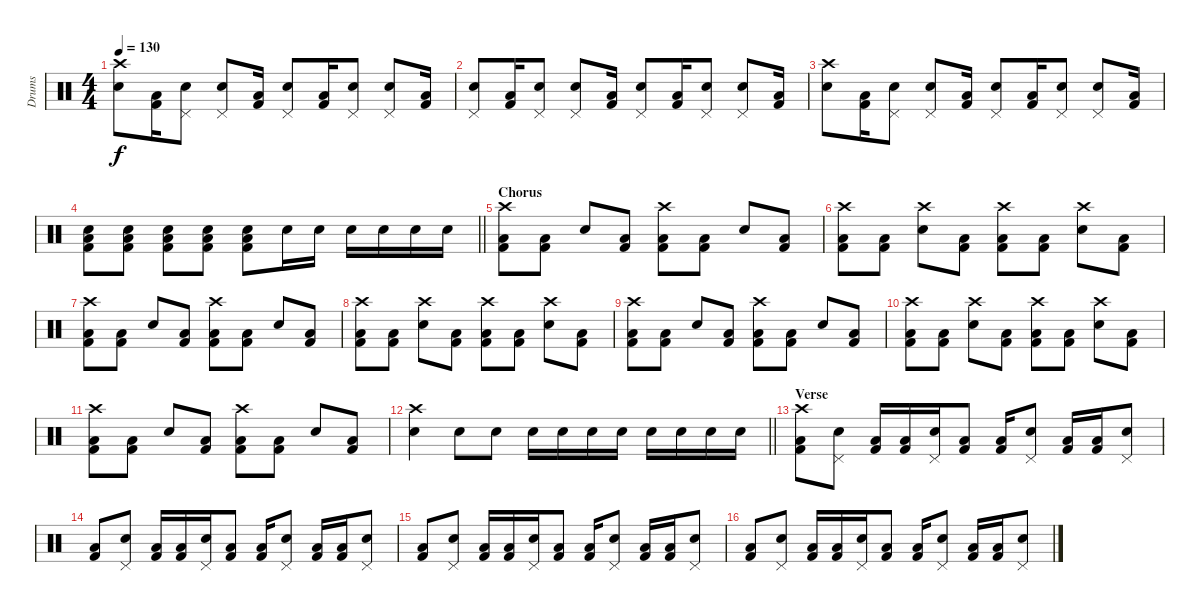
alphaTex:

\track ("Drums" "Drums") {instrument percussion}
\staff {score}
\articulation defaults
\ts (4 4)
\tempo 130
\clef neutral
\ks c
("Electric Snare (hit)" "Crash high (hit)").8{dy f} ("Kick (hit) 2" "Low Floor Tom (hit)").16 ("Electric Snare (hit)" "Pedal Hi-Hat (hit)").8 ("Electric Snare (hit)" "Pedal Hi-Hat (hit)").8 ("Kick (hit) 2" "Low Floor Tom (hit)").16 ("Electric Snare (hit)" "Pedal Hi-Hat (hit)").8 ("Kick (hit) 2" "Low Floor Tom (hit)").16 ("Electric Snare (hit)" "Pedal Hi-Hat (hit)").8 ("Electric Snare (hit)" "Pedal Hi-Hat (hit)").8 ("Kick (hit) 2" "Low Floor Tom (hit)").16 |
("Electric Snare (hit)" "Pedal Hi-Hat (hit)").8 ("Kick (hit) 2" "Low Floor Tom (hit)").16 ("Electric Snare (hit)" "Pedal Hi-Hat (hit)").8 ("Electric Snare (hit)" "Pedal Hi-Hat (hit)").8 ("Kick (hit) 2" "Low Floor Tom (hit)").16 ("Electric Snare (hit)" "Pedal Hi-Hat (hit)").8 ("Kick (hit) 2" "Low Floor Tom (hit)").16 ("Electric Snare (hit)" "Pedal Hi-Hat (hit)").8 ("Electric Snare (hit)" "Pedal Hi-Hat (hit)").8 ("Kick (hit) 2" "Low Floor Tom (hit)").16 |
("Electric Snare (hit)" "Crash high (hit)").8 ("Kick (hit) 2" "Low Floor Tom (hit)").16 ("Electric Snare (hit)" "Pedal Hi-Hat (hit)").8 ("Electric Snare (hit)" "Pedal Hi-Hat (hit)").8 ("Kick (hit) 2" "Low Floor Tom (hit)").16 ("Electric Snare (hit)" "Pedal Hi-Hat (hit)").8 ("Kick (hit) 2" "Low Floor Tom (hit)").16 ("Electric Snare (hit)" "Pedal Hi-Hat (hit)").8 ("Electric Snare (hit)" "Pedal Hi-Hat (hit)").8 ("Kick (hit) 2" "Low Floor Tom (hit)").16 |
\barLineRight lightlight
("Kick (hit) 2" "Low Floor Tom (hit)" "Electric Snare (hit)").8 ("Kick (hit) 2" "Low Floor Tom (hit)" "Electric Snare (hit)").8 ("Kick (hit) 2" "Low Floor Tom (hit)" "Electric Snare (hit)").8 ("Kick (hit) 2" "Low Floor Tom (hit)" "Electric Snare (hit)").8 ("Kick (hit) 2" "Low Floor Tom (hit)" "Electric Snare (hit)").8 "Electric Snare (hit)".16 "Electric Snare (hit)".16 "Electric Snare (hit)".16 "Electric Snare (hit)".16 "Electric Snare (hit)".16 "Electric Snare (hit)".16 |
\section ("" "Chorus")
("Kick (hit) 2" "Low Floor Tom (hit)" "Crash high (hit)").8 ("Kick (hit) 2" "Low Floor Tom (hit)").8 "Electric Snare (hit)".8 ("Kick (hit) 2" "Low Floor Tom (hit)").8 ("Kick (hit) 2" "Low Floor Tom (hit)" "Crash high (hit)").8 ("Kick (hit) 2" "Low Floor Tom (hit)").8 "Electric Snare (hit)".8 ("Kick (hit) 2" "Low Floor Tom (hit)").8 |
("Kick (hit) 2" "Low Floor Tom (hit)" "Crash high (hit)").8 ("Kick (hit) 2" "Low Floor Tom (hit)").8 ("Electric Snare (hit)" "Crash high (hit)").8 ("Kick (hit) 2" "Low Floor Tom (hit)").8 ("Kick (hit) 2" "Low Floor Tom (hit)" "Crash high (hit)").8 ("Kick (hit) 2" "Low Floor Tom (hit)").8 ("Electric Snare (hit)" "Crash high (hit)").8 ("Kick (hit) 2" "Low Floor Tom (hit)").8 |
("Kick (hit) 2" "Low Floor Tom (hit)" "Crash high (hit)").8 ("Kick (hit) 2" "Low Floor Tom (hit)").8 "Electric Snare (hit)".8 ("Kick (hit) 2" "Low Floor Tom (hit)").8 ("Kick (hit) 2" "Low Floor Tom (hit)" "Crash high (hit)").8 ("Kick (hit) 2" "Low Floor Tom (hit)").8 "Electric Snare (hit)".8 ("Kick (hit) 2" "Low Floor Tom (hit)").8 |
("Kick (hit) 2" "Low Floor Tom (hit)" "Crash high (hit)").8 ("Kick (hit) 2" "Low Floor Tom (hit)").8 ("Electric Snare (hit)" "Crash high (hit)").8 ("Kick (hit) 2" "Low Floor Tom (hit)").8 ("Kick (hit) 2" "Low Floor Tom (hit)" "Crash high (hit)").8 ("Kick (hit) 2" "Low Floor Tom (hit)").8 ("Electric Snare (hit)" "Crash high (hit)").8 ("Kick (hit) 2" "Low Floor Tom (hit)").8 |
("Kick (hit) 2" "Low Floor Tom (hit)" "Crash high (hit)").8 ("Kick (hit) 2" "Low Floor Tom (hit)").8 "Electric Snare (hit)".8 ("Kick (hit) 2" "Low Floor Tom (hit)").8 ("Kick (hit) 2" "Low Floor Tom (hit)" "Crash high (hit)").8 ("Kick (hit) 2" "Low Floor Tom (hit)").8 "Electric Snare (hit)".8 ("Kick (hit) 2" "Low Floor Tom (hit)").8 |
("Kick (hit) 2" "Low Floor Tom (hit)" "Crash high (hit)").8 ("Kick (hit) 2" "Low Floor Tom (hit)").8 ("Electric Snare (hit)" "Crash high (hit)").8 ("Kick (hit) 2" "Low Floor Tom (hit)").8 ("Kick (hit) 2" "Low Floor Tom (hit)" "Crash high (hit)").8 ("Kick (hit) 2" "Low Floor Tom (hit)").8 ("Electric Snare (hit)" "Crash high (hit)").8 ("Kick (hit) 2" "Low Floor Tom (hit)").8 |
("Kick (hit) 2" "Low Floor Tom (hit)" "Crash high (hit)").8 ("Kick (hit) 2" "Low Floor Tom (hit)").8 "Electric Snare (hit)".8 ("Kick (hit) 2" "Low Floor Tom (hit)").8 ("Kick (hit) 2" "Low Floor Tom (hit)" "Crash high (hit)").8 ("Kick (hit) 2" "Low Floor Tom (hit)").8 "Electric Snare (hit)".8 ("Kick (hit) 2" "Low Floor Tom (hit)").8 |
\barLineRight lightlight
("Electric Snare (hit)" "Crash high (hit)").4 "Electric Snare (hit)".8 "Electric Snare (hit)".8 "Electric Snare (hit)".16 "Electric Snare (hit)".16 "Electric Snare (hit)".16 "Electric Snare (hit)".16 "Electric Snare (hit)".16 "Electric Snare (hit)".16 "Electric Snare (hit)".16 "Electric Snare (hit)".16 |
\section ("" "Verse")
("Kick (hit) 2" "Low Floor Tom (hit)" "Crash high (hit)").8 ("Electric Snare (hit)" "Pedal Hi-Hat (hit)").8 ("Kick (hit) 2" "Low Floor Tom (hit)").16 ("Kick (hit) 2" "Low Floor Tom (hit)").16 ("Electric Snare (hit)" "Pedal Hi-Hat (hit)").16 ("Kick (hit) 2" "Low Floor Tom (hit)").8 ("Kick (hit) 2" "Low Floor Tom (hit)").16 ("Electric Snare (hit)" "Pedal Hi-Hat (hit)").8 ("Kick (hit) 2" "Low Floor Tom (hit)").16 ("Kick (hit) 2" "Low Floor Tom (hit)").16 ("Electric Snare (hit)" "Pedal Hi-Hat (hit)").8 |
("Kick (hit) 2" "Low Floor Tom (hit)").8 ("Electric Snare (hit)" "Pedal Hi-Hat (hit)").8 ("Kick (hit) 2" "Low Floor Tom (hit)").16 ("Kick (hit) 2" "Low Floor Tom (hit)").16 ("Electric Snare (hit)" "Pedal Hi-Hat (hit)").16 ("Kick (hit) 2" "Low Floor Tom (hit)").8 ("Kick (hit) 2" "Low Floor Tom (hit)").16 ("Electric Snare (hit)" "Pedal Hi-Hat (hit)").8 ("Kick (hit) 2" "Low Floor Tom (hit)").16 ("Kick (hit) 2" "Low Floor Tom (hit)").16 ("Electric Snare (hit)" "Pedal Hi-Hat (hit)").8 |
("Kick (hit) 2" "Low Floor Tom (hit)").8 ("Electric Snare (hit)" "Pedal Hi-Hat (hit)").8 ("Kick (hit) 2" "Low Floor Tom (hit)").16 ("Kick (hit) 2" "Low Floor Tom (hit)").16 ("Electric Snare (hit)" "Pedal Hi-Hat (hit)").16 ("Kick (hit) 2" "Low Floor Tom (hit)").8 ("Kick (hit) 2" "Low Floor Tom (hit)").16 ("Electric Snare (hit)" "Pedal Hi-Hat (hit)").8 ("Kick (hit) 2" "Low Floor Tom (hit)").16 ("Kick (hit) 2" "Low Floor Tom (hit)").16 ("Electric Snare (hit)" "Pedal Hi-Hat (hit)").8 |
("Kick (hit) 2" "Low Floor Tom (hit)").8 ("Electric Snare (hit)" "Pedal Hi-Hat (hit)").8 ("Kick (hit) 2" "Low Floor Tom (hit)").16 ("Kick (hit) 2" "Low Floor Tom (hit)").16 ("Electric Snare (hit)" "Pedal Hi-Hat (hit)").16 ("Kick (hit) 2" "Low Floor Tom (hit)").8 ("Kick (hit) 2" "Low Floor Tom (hit)").16 ("Electric Snare (hit)" "Pedal Hi-Hat (hit)").8 ("Kick (hit) 2" "Low Floor Tom (hit)").16 ("Kick (hit) 2" "Low Floor Tom (hit)").16 ("Electric Snare (hit)" "Pedal Hi-Hat (hit)").8
